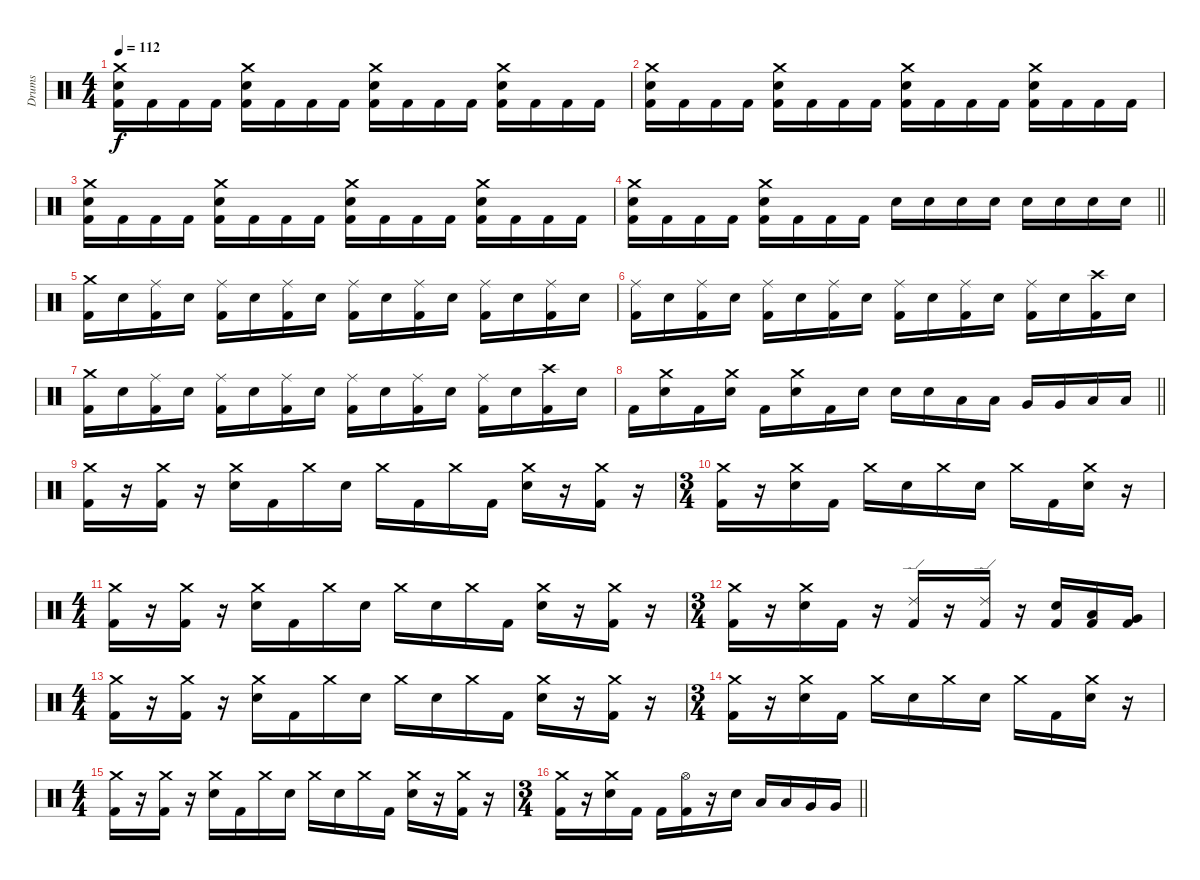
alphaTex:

\track ("Drums" "Drums") {instrument percussion}
\staff {score}
\articulation defaults
\ts (4 4)
\section ("" "")
\tempo 112
\clef neutral
\ks c
("Crash medium (hit)" "Electric Snare (hit)" "Kick (hit) 2").16{dy f} "Kick (hit) 2".16 "Kick (hit) 2".16 "Kick (hit) 2".16 ("Crash medium (hit)" "Electric Snare (hit)" "Kick (hit) 2").16 "Kick (hit) 2".16 "Kick (hit) 2".16 "Kick (hit) 2".16 ("Crash medium (hit)" "Electric Snare (hit)" "Kick (hit) 2").16 "Kick (hit) 2".16 "Kick (hit) 2".16 "Kick (hit) 2".16 ("Crash medium (hit)" "Electric Snare (hit)" "Kick (hit) 2").16 "Kick (hit) 2".16 "Kick (hit) 2".16 "Kick (hit) 2".16 |
("Crash medium (hit)" "Electric Snare (hit)" "Kick (hit) 2").16 "Kick (hit) 2".16 "Kick (hit) 2".16 "Kick (hit) 2".16 ("Crash medium (hit)" "Electric Snare (hit)" "Kick (hit) 2").16 "Kick (hit) 2".16 "Kick (hit) 2".16 "Kick (hit) 2".16 ("Crash medium (hit)" "Electric Snare (hit)" "Kick (hit) 2").16 "Kick (hit) 2".16 "Kick (hit) 2".16 "Kick (hit) 2".16 ("Crash medium (hit)" "Electric Snare (hit)" "Kick (hit) 2").16 "Kick (hit) 2".16 "Kick (hit) 2".16 "Kick (hit) 2".16 |
("Crash medium (hit)" "Electric Snare (hit)" "Kick (hit) 2").16 "Kick (hit) 2".16 "Kick (hit) 2".16 "Kick (hit) 2".16 ("Crash medium (hit)" "Electric Snare (hit)" "Kick (hit) 2").16 "Kick (hit) 2".16 "Kick (hit) 2".16 "Kick (hit) 2".16 ("Crash medium (hit)" "Electric Snare (hit)" "Kick (hit) 2").16 "Kick (hit) 2".16 "Kick (hit) 2".16 "Kick (hit) 2".16 ("Crash medium (hit)" "Electric Snare (hit)" "Kick (hit) 2").16 "Kick (hit) 2".16 "Kick (hit) 2".16 "Kick (hit) 2".16 |
\barLineRight lightlight
("Crash medium (hit)" "Electric Snare (hit)" "Kick (hit) 2").16 "Kick (hit) 2".16 "Kick (hit) 2".16 "Kick (hit) 2".16 ("Crash medium (hit)" "Electric Snare (hit)" "Kick (hit) 2").16 "Kick (hit) 2".16 "Kick (hit) 2".16 "Kick (hit) 2".16 "Electric Snare (hit)".16 "Electric Snare (hit)".16 "Electric Snare (hit)".16 "Electric Snare (hit)".16 "Electric Snare (hit)".16 "Electric Snare (hit)".16 "Electric Snare (hit)".16 "Electric Snare (hit)".16 |
\section ("" "")
("Crash medium (hit)" "Kick (hit) 2").16 "Electric Snare (hit)".16 ("Ride (middle)" "Kick (hit) 2").16 "Electric Snare (hit)".16 ("Ride (middle)" "Kick (hit) 2").16 "Electric Snare (hit)".16 ("Ride (middle)" "Kick (hit) 2").16 "Electric Snare (hit)".16 ("Ride (middle)" "Kick (hit) 2").16 "Electric Snare (hit)".16 ("Ride (middle)" "Kick (hit) 2").16 "Electric Snare (hit)".16 ("Ride (middle)" "Kick (hit) 2").16 "Electric Snare (hit)".16 ("Ride (middle)" "Kick (hit) 2").16 "Electric Snare (hit)".16 |
("Ride (middle)" "Kick (hit) 2").16 "Electric Snare (hit)".16 ("Ride (middle)" "Kick (hit) 2").16 "Electric Snare (hit)".16 ("Ride (middle)" "Kick (hit) 2").16 "Electric Snare (hit)".16 ("Ride (middle)" "Kick (hit) 2").16 "Electric Snare (hit)".16 ("Ride (middle)" "Kick (hit) 2").16 "Electric Snare (hit)".16 ("Ride (middle)" "Kick (hit) 2").16 "Electric Snare (hit)".16 ("Ride (middle)" "Kick (hit) 2").16 "Electric Snare (hit)".16 ("Crash high (hit)" "Kick (hit) 2").16 "Electric Snare (hit)".16 |
("Crash medium (hit)" "Kick (hit) 2").16 "Electric Snare (hit)".16 ("Ride (middle)" "Kick (hit) 2").16 "Electric Snare (hit)".16 ("Ride (middle)" "Kick (hit) 2").16 "Electric Snare (hit)".16 ("Ride (middle)" "Kick (hit) 2").16 "Electric Snare (hit)".16 ("Ride (middle)" "Kick (hit) 2").16 "Electric Snare (hit)".16 ("Ride (middle)" "Kick (hit) 2").16 "Electric Snare (hit)".16 ("Ride (middle)" "Kick (hit) 2").16 "Electric Snare (hit)".16 ("Crash high (hit)" "Kick (hit) 2").16 "Electric Snare (hit)".16 |
\barLineRight lightlight "Kick (hit) 2".16
("Crash medium (hit)" "Electric Snare (hit)").16 "Kick (hit) 2".16 ("Crash medium (hit)" "Electric Snare (hit)").16 "Kick (hit) 2".16 ("Crash medium (hit)" "Electric Snare (hit)").16 "Kick (hit) 2".16 "Electric Snare (hit)".16 "Electric Snare (hit)".16 "Electric Snare (hit)".16 "Low Tom (hit)".16 "Low Tom (hit)".16 "Very Low Tom (hit)".16 "Very Low Tom (hit)".16 "Low Floor Tom (hit)".16 "Low Floor Tom (hit)".16 |
\section ("" "")
("Crash medium (hit)" "Kick (hit) 2").16 r.16 ("Crash medium (hit)" "Kick (hit) 2").16 r.16 ("Crash medium (hit)" "Electric Snare (hit)").16 "Kick (hit) 2".16 "Crash medium (hit)".16 "Electric Snare (hit)".16 "Crash medium (hit)".16 "Kick (hit) 2".16 "Crash medium (hit)".16 "Kick (hit) 2".16 ("Crash medium (hit)" "Electric Snare (hit)").16 r.16 ("Crash medium (hit)" "Kick (hit) 2").16 r.16 |
\ts (3 4)
("Crash medium (hit)" "Kick (hit) 2").16 r.16 ("Crash medium (hit)" "Electric Snare (hit)").16 "Kick (hit) 2".16 "Crash medium (hit)".16 "Electric Snare (hit)".16 "Crash medium (hit)".16 "Electric Snare (hit)".16 "Crash medium (hit)".16 "Kick (hit) 2".16 ("Crash medium (hit)" "Electric Snare (hit)").16 r.16 |
\ts (4 4)
("Crash medium (hit)" "Kick (hit) 2").16 r.16 ("Crash medium (hit)" "Kick (hit) 2").16 r.16 ("Crash medium (hit)" "Electric Snare (hit)").16 "Kick (hit) 2".16 "Crash medium (hit)".16 "Electric Snare (hit)".16 "Crash medium (hit)".16 "Electric Snare (hit)".16 "Crash medium (hit)".16 "Kick (hit) 2".16 ("Crash medium (hit)" "Electric Snare (hit)").16 r.16 ("Crash medium (hit)" "Kick (hit) 2").16 r.16 |
\ts (3 4)
("Crash medium (hit)" "Kick (hit) 2").16 r.16 ("Crash medium (hit)" "Electric Snare (hit)").16 "Kick (hit) 2".16 r.16 ("Ride (edge) 2" "Kick (hit) 2").16 r.16 ("Ride (edge) 2" "Kick (hit) 2").16 r.16 ("Electric Snare (hit)" "Kick (hit) 2").16 ("Low Tom (hit)" "Kick (hit) 2").16 ("Very Low Tom (hit)" "Kick (hit) 2").16 |
\ts (4 4)
("Crash medium (hit)" "Kick (hit) 2").16 r.16 ("Crash medium (hit)" "Kick (hit) 2").16 r.16 ("Crash medium (hit)" "Electric Snare (hit)").16 "Kick (hit) 2".16 "Crash medium (hit)".16 "Electric Snare (hit)".16 "Crash medium (hit)".16 "Electric Snare (hit)".16 "Crash medium (hit)".16 "Kick (hit) 2".16 ("Crash medium (hit)" "Electric Snare (hit)").16 r.16 ("Crash medium (hit)" "Kick (hit) 2").16 r.16 |
\ts (3 4)
("Crash medium (hit)" "Kick (hit) 2").16 r.16 ("Crash medium (hit)" "Electric Snare (hit)").16 "Kick (hit) 2".16 "Crash medium (hit)".16 "Electric Snare (hit)".16 "Crash medium (hit)".16 "Electric Snare (hit)".16 "Crash medium (hit)".16 "Kick (hit) 2".16 ("Crash medium (hit)" "Electric Snare (hit)").16 r.16 |
\ts (4 4)
("Crash medium (hit)" "Kick (hit) 2").16 r.16 ("Crash medium (hit)" "Kick (hit) 2").16 r.16 ("Crash medium (hit)" "Electric Snare (hit)").16 "Kick (hit) 2".16 "Crash medium (hit)".16 "Electric Snare (hit)".16 "Crash medium (hit)".16 "Electric Snare (hit)".16 "Crash medium (hit)".16 "Kick (hit) 2".16 ("Crash medium (hit)" "Electric Snare (hit)").16 r.16 ("Crash medium (hit)" "Kick (hit) 2").16 r.16 |
\ts (3 4)
\barLineRight lightlight
("Crash medium (hit)" "Kick (hit) 2").16 r.16 ("Crash medium (hit)" "Electric Snare (hit)").16 "Kick (hit) 2".16 "Kick (hit) 2".16 ("Hi-Hat (open)" "Kick (hit) 2").16 r.16 "Electric Snare (hit)".16 "Low Tom (hit)".16 "Low Tom (hit)".16 "Very Low Tom (hit)".16 "Very Low Tom (hit)".16
